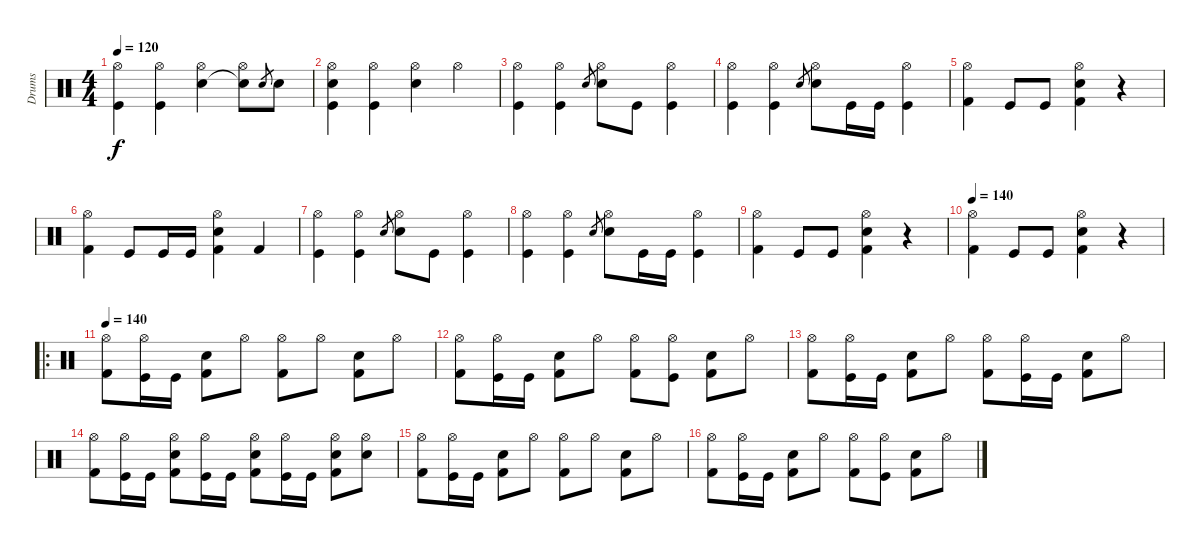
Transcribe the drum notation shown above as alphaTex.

\track ("Drums" "Drums") {instrument percussion}
\staff {score}
\articulation defaults
\ts (4 4)
\tempo 120
\clef neutral
\ks c
("Hi-Hat (open)" "Kick (hit)").4{dy f} ("Hi-Hat (open)" "Kick (hit)").4 ("Hi-Hat (open)" "Electric Snare (hit)").4 ("Hi-Hat (open)" "Snare (hit)"{t}).8 "Snare (hit) 2".8{gr} "Snare (hit) 2".8 |
("Hi-Hat (open)" "Kick (hit)" "Snare (hit) 2").4 ("Hi-Hat (open)" "Kick (hit)").4 ("Hi-Hat (open)" "Electric Snare (hit)").4 "Hi-Hat (open)".4 |
("Hi-Hat (open)" "Kick (hit)").4 ("Hi-Hat (open)" "Kick (hit)").4 "Snare (hit) 2".8{gr} ("Hi-Hat (open)" "Electric Snare (hit)").8 "Kick (hit)".8 ("Hi-Hat (open)" "Kick (hit)").4 |
("Hi-Hat (open)" "Kick (hit)").4 ("Hi-Hat (open)" "Kick (hit)").4 "Snare (hit) 2".8{gr} ("Hi-Hat (open)" "Electric Snare (hit)").8 "Kick (hit)".16 "Kick (hit)".16 ("Hi-Hat (open)" "Kick (hit)").4 |
("Hi-Hat (open)" "Kick (hit) 2").4 "Kick (hit)".8 "Kick (hit)".8 ("Electric Snare (hit)" "Hi-Hat (open)" "Kick (hit) 2").4 r.4 |
("Hi-Hat (open)" "Kick (hit) 2").4 "Kick (hit)".8 "Kick (hit)".16 "Kick (hit)".16 ("Electric Snare (hit)" "Hi-Hat (open)" "Kick (hit) 2").4 "Kick (hit) 2".4 |
("Hi-Hat (open)" "Kick (hit)").4 ("Hi-Hat (open)" "Kick (hit)").4 "Snare (hit) 2".8{gr} ("Hi-Hat (open)" "Electric Snare (hit)").8 "Kick (hit)".8 ("Hi-Hat (open)" "Kick (hit)").4 |
("Hi-Hat (open)" "Kick (hit)").4 ("Hi-Hat (open)" "Kick (hit)").4 "Snare (hit) 2".8{gr} ("Hi-Hat (open)" "Electric Snare (hit)").8 "Kick (hit)".16 "Kick (hit)".16 ("Hi-Hat (open)" "Kick (hit)").4 |
("Hi-Hat (open)" "Kick (hit) 2").4 "Kick (hit)".8 "Kick (hit)".8 ("Electric Snare (hit)" "Hi-Hat (open)" "Kick (hit) 2").4 r.4 |
\tempo 140
("Hi-Hat (open)" "Kick (hit) 2").4 "Kick (hit)".8 "Kick (hit)".8 ("Electric Snare (hit)" "Hi-Hat (open)" "Kick (hit) 2").4 r.4 |
\ro
\tempo 140
("Hi-Hat (open)" "Kick (hit) 2").8 ("Hi-Hat (open)" "Kick (hit)").16 "Kick (hit)".16 ("Electric Snare (hit)" "Kick (hit) 2").8 "Hi-Hat (open)".8 ("Hi-Hat (open)" "Kick (hit) 2").8 "Hi-Hat (open)".8 ("Electric Snare (hit)" "Kick (hit) 2").8 "Hi-Hat (open)".8 |
("Hi-Hat (open)" "Kick (hit) 2").8 ("Hi-Hat (open)" "Kick (hit)").16 "Kick (hit)".16 ("Electric Snare (hit)" "Kick (hit) 2").8 "Hi-Hat (open)".8 ("Hi-Hat (open)" "Kick (hit) 2").8 ("Hi-Hat (open)" "Kick (hit)").8 ("Electric Snare (hit)" "Kick (hit) 2").8 "Hi-Hat (open)".8 |
("Hi-Hat (open)" "Kick (hit) 2").8 ("Hi-Hat (open)" "Kick (hit)").16 "Kick (hit)".16 ("Electric Snare (hit)" "Kick (hit) 2").8 "Hi-Hat (open)".8 ("Hi-Hat (open)" "Kick (hit) 2").8 ("Hi-Hat (open)" "Kick (hit)").16 "Kick (hit)".16 ("Electric Snare (hit)" "Kick (hit) 2").8 "Hi-Hat (open)".8 |
("Hi-Hat (open)" "Kick (hit) 2").8 ("Hi-Hat (open)" "Kick (hit)").16 "Kick (hit)".16 ("Electric Snare (hit)" "Hi-Hat (open)" "Kick (hit) 2").8 ("Hi-Hat (open)" "Kick (hit)").16 "Kick (hit)".16 ("Electric Snare (hit)" "Hi-Hat (open)" "Kick (hit) 2").8 ("Hi-Hat (open)" "Kick (hit)").16 "Kick (hit)".16 ("Electric Snare (hit)" "Hi-Hat (open)" "Kick (hit) 2").8 ("Electric Snare (hit)" "Hi-Hat (open)").8 |
("Hi-Hat (open)" "Kick (hit) 2").8 ("Hi-Hat (open)" "Kick (hit)").16 "Kick (hit)".16 ("Electric Snare (hit)" "Kick (hit) 2").8 "Hi-Hat (open)".8 ("Hi-Hat (open)" "Kick (hit) 2").8 "Hi-Hat (open)".8 ("Electric Snare (hit)" "Kick (hit) 2").8 "Hi-Hat (open)".8 |
("Hi-Hat (open)" "Kick (hit) 2").8 ("Hi-Hat (open)" "Kick (hit)").16 "Kick (hit)".16 ("Electric Snare (hit)" "Kick (hit) 2").8 "Hi-Hat (open)".8 ("Hi-Hat (open)" "Kick (hit) 2").8 ("Hi-Hat (open)" "Kick (hit)").8 ("Electric Snare (hit)" "Kick (hit) 2").8 "Hi-Hat (open)".8
